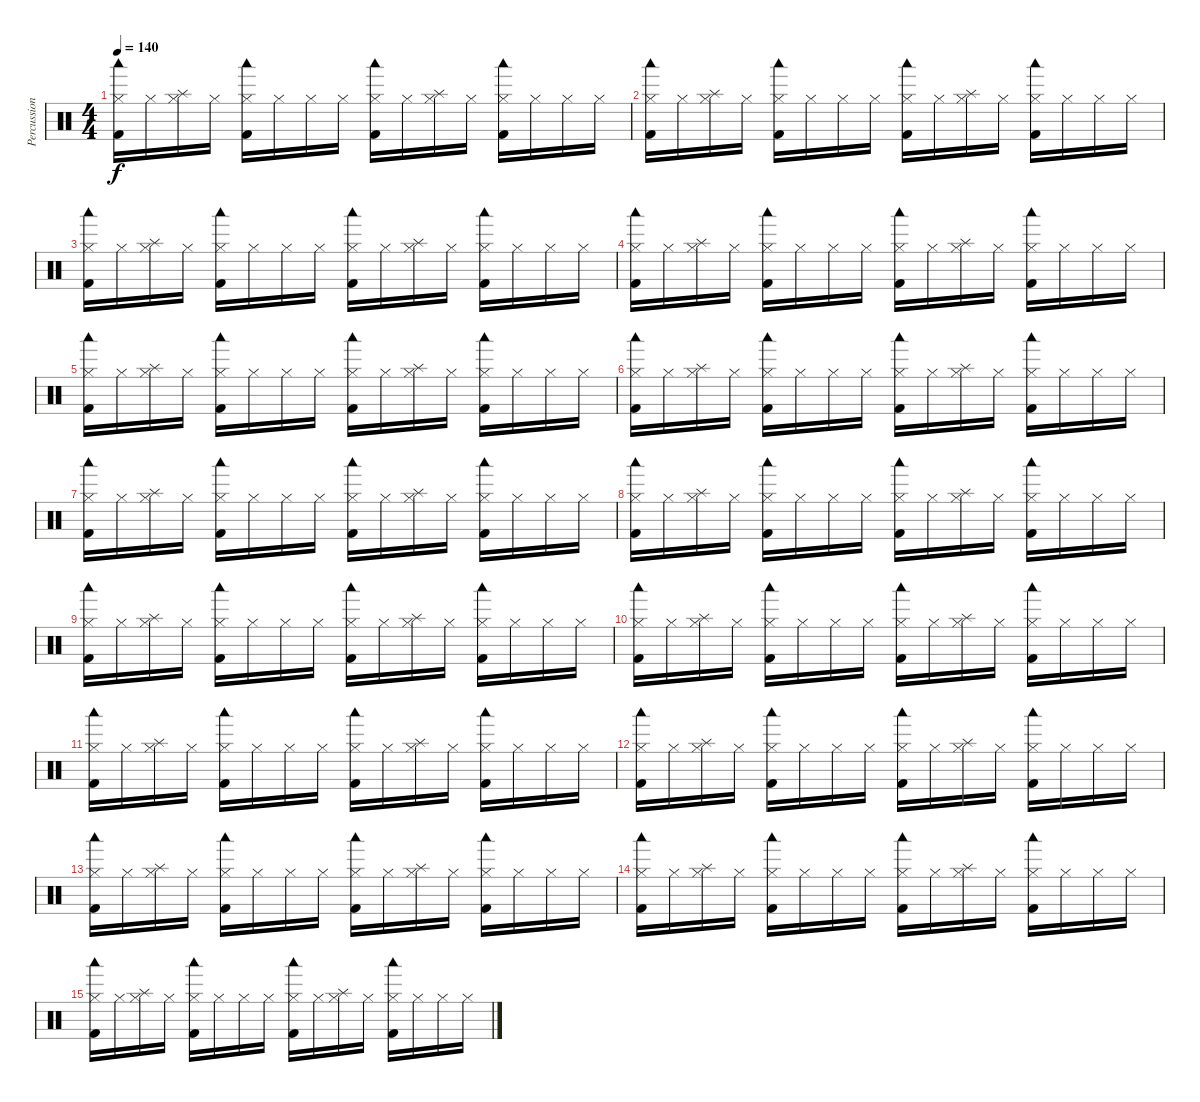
\track ("Percussion" "Percussion") {instrument percussion}
\staff {score}
\articulation defaults
\ts (4 4)
\tempo 140
\clef neutral
\ks c
("Woodblock low (hit)" "Hi-Hat (closed)" "Kick (hit) 2").16{dy f} "Hi-Hat (closed)".16 ("Splash (hit)" "Hi-Hat (closed)").16 "Hi-Hat (closed)".16 ("Woodblock low (hit)" "Hi-Hat (closed)" "Kick (hit) 2").16 "Hi-Hat (closed)".16 "Hi-Hat (closed)".16 "Hi-Hat (closed)".16 ("Woodblock low (hit)" "Hi-Hat (closed)" "Kick (hit) 2").16 "Hi-Hat (closed)".16 ("Splash (hit)" "Hi-Hat (closed)").16 "Hi-Hat (closed)".16 ("Woodblock low (hit)" "Hi-Hat (closed)" "Kick (hit) 2").16 "Hi-Hat (closed)".16 "Hi-Hat (closed)".16 "Hi-Hat (closed)".16 |
("Woodblock low (hit)" "Hi-Hat (closed)" "Kick (hit) 2").16 "Hi-Hat (closed)".16 ("Splash (hit)" "Hi-Hat (closed)").16 "Hi-Hat (closed)".16 ("Woodblock low (hit)" "Hi-Hat (closed)" "Kick (hit) 2").16 "Hi-Hat (closed)".16 "Hi-Hat (closed)".16 "Hi-Hat (closed)".16 ("Woodblock low (hit)" "Hi-Hat (closed)" "Kick (hit) 2").16 "Hi-Hat (closed)".16 ("Splash (hit)" "Hi-Hat (closed)").16 "Hi-Hat (closed)".16 ("Woodblock low (hit)" "Hi-Hat (closed)" "Kick (hit) 2").16 "Hi-Hat (closed)".16 "Hi-Hat (closed)".16 "Hi-Hat (closed)".16 |
("Woodblock low (hit)" "Hi-Hat (closed)" "Kick (hit) 2").16 "Hi-Hat (closed)".16 ("Splash (hit)" "Hi-Hat (closed)").16 "Hi-Hat (closed)".16 ("Woodblock low (hit)" "Hi-Hat (closed)" "Kick (hit) 2").16 "Hi-Hat (closed)".16 "Hi-Hat (closed)".16 "Hi-Hat (closed)".16 ("Woodblock low (hit)" "Hi-Hat (closed)" "Kick (hit) 2").16 "Hi-Hat (closed)".16 ("Splash (hit)" "Hi-Hat (closed)").16 "Hi-Hat (closed)".16 ("Woodblock low (hit)" "Hi-Hat (closed)" "Kick (hit) 2").16 "Hi-Hat (closed)".16 "Hi-Hat (closed)".16 "Hi-Hat (closed)".16 |
("Woodblock low (hit)" "Hi-Hat (closed)" "Kick (hit) 2").16 "Hi-Hat (closed)".16 ("Splash (hit)" "Hi-Hat (closed)").16 "Hi-Hat (closed)".16 ("Woodblock low (hit)" "Hi-Hat (closed)" "Kick (hit) 2").16 "Hi-Hat (closed)".16 "Hi-Hat (closed)".16 "Hi-Hat (closed)".16 ("Woodblock low (hit)" "Hi-Hat (closed)" "Kick (hit) 2").16 "Hi-Hat (closed)".16 ("Splash (hit)" "Hi-Hat (closed)").16 "Hi-Hat (closed)".16 ("Woodblock low (hit)" "Hi-Hat (closed)" "Kick (hit) 2").16 "Hi-Hat (closed)".16 "Hi-Hat (closed)".16 "Hi-Hat (closed)".16 |
("Woodblock low (hit)" "Hi-Hat (closed)" "Kick (hit) 2").16 "Hi-Hat (closed)".16 ("Splash (hit)" "Hi-Hat (closed)").16 "Hi-Hat (closed)".16 ("Woodblock low (hit)" "Hi-Hat (closed)" "Kick (hit) 2").16 "Hi-Hat (closed)".16 "Hi-Hat (closed)".16 "Hi-Hat (closed)".16 ("Woodblock low (hit)" "Hi-Hat (closed)" "Kick (hit) 2").16 "Hi-Hat (closed)".16 ("Splash (hit)" "Hi-Hat (closed)").16 "Hi-Hat (closed)".16 ("Woodblock low (hit)" "Hi-Hat (closed)" "Kick (hit) 2").16 "Hi-Hat (closed)".16 "Hi-Hat (closed)".16 "Hi-Hat (closed)".16 |
("Woodblock low (hit)" "Hi-Hat (closed)" "Kick (hit) 2").16 "Hi-Hat (closed)".16 ("Splash (hit)" "Hi-Hat (closed)").16 "Hi-Hat (closed)".16 ("Woodblock low (hit)" "Hi-Hat (closed)" "Kick (hit) 2").16 "Hi-Hat (closed)".16 "Hi-Hat (closed)".16 "Hi-Hat (closed)".16 ("Woodblock low (hit)" "Hi-Hat (closed)" "Kick (hit) 2").16 "Hi-Hat (closed)".16 ("Splash (hit)" "Hi-Hat (closed)").16 "Hi-Hat (closed)".16 ("Woodblock low (hit)" "Hi-Hat (closed)" "Kick (hit) 2").16 "Hi-Hat (closed)".16 "Hi-Hat (closed)".16 "Hi-Hat (closed)".16 |
("Woodblock low (hit)" "Hi-Hat (closed)" "Kick (hit) 2").16 "Hi-Hat (closed)".16 ("Splash (hit)" "Hi-Hat (closed)").16 "Hi-Hat (closed)".16 ("Woodblock low (hit)" "Hi-Hat (closed)" "Kick (hit) 2").16 "Hi-Hat (closed)".16 "Hi-Hat (closed)".16 "Hi-Hat (closed)".16 ("Woodblock low (hit)" "Hi-Hat (closed)" "Kick (hit) 2").16 "Hi-Hat (closed)".16 ("Splash (hit)" "Hi-Hat (closed)").16 "Hi-Hat (closed)".16 ("Woodblock low (hit)" "Hi-Hat (closed)" "Kick (hit) 2").16 "Hi-Hat (closed)".16 "Hi-Hat (closed)".16 "Hi-Hat (closed)".16 |
("Woodblock low (hit)" "Hi-Hat (closed)" "Kick (hit) 2").16 "Hi-Hat (closed)".16 ("Splash (hit)" "Hi-Hat (closed)").16 "Hi-Hat (closed)".16 ("Woodblock low (hit)" "Hi-Hat (closed)" "Kick (hit) 2").16 "Hi-Hat (closed)".16 "Hi-Hat (closed)".16 "Hi-Hat (closed)".16 ("Woodblock low (hit)" "Hi-Hat (closed)" "Kick (hit) 2").16 "Hi-Hat (closed)".16 ("Splash (hit)" "Hi-Hat (closed)").16 "Hi-Hat (closed)".16 ("Woodblock low (hit)" "Hi-Hat (closed)" "Kick (hit) 2").16 "Hi-Hat (closed)".16 "Hi-Hat (closed)".16 "Hi-Hat (closed)".16 |
("Woodblock low (hit)" "Hi-Hat (closed)" "Kick (hit) 2").16 "Hi-Hat (closed)".16 ("Splash (hit)" "Hi-Hat (closed)").16 "Hi-Hat (closed)".16 ("Woodblock low (hit)" "Hi-Hat (closed)" "Kick (hit) 2").16 "Hi-Hat (closed)".16 "Hi-Hat (closed)".16 "Hi-Hat (closed)".16 ("Woodblock low (hit)" "Hi-Hat (closed)" "Kick (hit) 2").16 "Hi-Hat (closed)".16 ("Splash (hit)" "Hi-Hat (closed)").16 "Hi-Hat (closed)".16 ("Woodblock low (hit)" "Hi-Hat (closed)" "Kick (hit) 2").16 "Hi-Hat (closed)".16 "Hi-Hat (closed)".16 "Hi-Hat (closed)".16 |
("Woodblock low (hit)" "Hi-Hat (closed)" "Kick (hit) 2").16 "Hi-Hat (closed)".16 ("Splash (hit)" "Hi-Hat (closed)").16 "Hi-Hat (closed)".16 ("Woodblock low (hit)" "Hi-Hat (closed)" "Kick (hit) 2").16 "Hi-Hat (closed)".16 "Hi-Hat (closed)".16 "Hi-Hat (closed)".16 ("Woodblock low (hit)" "Hi-Hat (closed)" "Kick (hit) 2").16 "Hi-Hat (closed)".16 ("Splash (hit)" "Hi-Hat (closed)").16 "Hi-Hat (closed)".16 ("Woodblock low (hit)" "Hi-Hat (closed)" "Kick (hit) 2").16 "Hi-Hat (closed)".16 "Hi-Hat (closed)".16 "Hi-Hat (closed)".16 |
("Woodblock low (hit)" "Hi-Hat (closed)" "Kick (hit) 2").16 "Hi-Hat (closed)".16 ("Splash (hit)" "Hi-Hat (closed)").16 "Hi-Hat (closed)".16 ("Woodblock low (hit)" "Hi-Hat (closed)" "Kick (hit) 2").16 "Hi-Hat (closed)".16 "Hi-Hat (closed)".16 "Hi-Hat (closed)".16 ("Woodblock low (hit)" "Hi-Hat (closed)" "Kick (hit) 2").16 "Hi-Hat (closed)".16 ("Splash (hit)" "Hi-Hat (closed)").16 "Hi-Hat (closed)".16 ("Woodblock low (hit)" "Hi-Hat (closed)" "Kick (hit) 2").16 "Hi-Hat (closed)".16 "Hi-Hat (closed)".16 "Hi-Hat (closed)".16 |
("Woodblock low (hit)" "Hi-Hat (closed)" "Kick (hit) 2").16{volume 6} "Hi-Hat (closed)".16 ("Splash (hit)" "Hi-Hat (closed)").16 "Hi-Hat (closed)".16 ("Woodblock low (hit)" "Hi-Hat (closed)" "Kick (hit) 2").16 "Hi-Hat (closed)".16 "Hi-Hat (closed)".16 "Hi-Hat (closed)".16 ("Woodblock low (hit)" "Hi-Hat (closed)" "Kick (hit) 2").16 "Hi-Hat (closed)".16 ("Splash (hit)" "Hi-Hat (closed)").16 "Hi-Hat (closed)".16 ("Woodblock low (hit)" "Hi-Hat (closed)" "Kick (hit) 2").16 "Hi-Hat (closed)".16 "Hi-Hat (closed)".16 "Hi-Hat (closed)".16 |
("Woodblock low (hit)" "Hi-Hat (closed)" "Kick (hit) 2").16 "Hi-Hat (closed)".16 ("Splash (hit)" "Hi-Hat (closed)").16 "Hi-Hat (closed)".16 ("Woodblock low (hit)" "Hi-Hat (closed)" "Kick (hit) 2").16 "Hi-Hat (closed)".16 "Hi-Hat (closed)".16 "Hi-Hat (closed)".16 ("Woodblock low (hit)" "Hi-Hat (closed)" "Kick (hit) 2").16 "Hi-Hat (closed)".16 ("Splash (hit)" "Hi-Hat (closed)").16 "Hi-Hat (closed)".16 ("Woodblock low (hit)" "Hi-Hat (closed)" "Kick (hit) 2").16 "Hi-Hat (closed)".16 "Hi-Hat (closed)".16 "Hi-Hat (closed)".16 |
("Woodblock low (hit)" "Hi-Hat (closed)" "Kick (hit) 2").16 "Hi-Hat (closed)".16 ("Splash (hit)" "Hi-Hat (closed)").16 "Hi-Hat (closed)".16 ("Woodblock low (hit)" "Hi-Hat (closed)" "Kick (hit) 2").16 "Hi-Hat (closed)".16 "Hi-Hat (closed)".16 "Hi-Hat (closed)".16 ("Woodblock low (hit)" "Hi-Hat (closed)" "Kick (hit) 2").16 "Hi-Hat (closed)".16 ("Splash (hit)" "Hi-Hat (closed)").16 "Hi-Hat (closed)".16 ("Woodblock low (hit)" "Hi-Hat (closed)" "Kick (hit) 2").16 "Hi-Hat (closed)".16 "Hi-Hat (closed)".16 "Hi-Hat (closed)".16 |
("Woodblock low (hit)" "Hi-Hat (closed)" "Kick (hit) 2").16 "Hi-Hat (closed)".16 ("Splash (hit)" "Hi-Hat (closed)").16 "Hi-Hat (closed)".16 ("Woodblock low (hit)" "Hi-Hat (closed)" "Kick (hit) 2").16 "Hi-Hat (closed)".16 "Hi-Hat (closed)".16 "Hi-Hat (closed)".16 ("Woodblock low (hit)" "Hi-Hat (closed)" "Kick (hit) 2").16 "Hi-Hat (closed)".16 ("Splash (hit)" "Hi-Hat (closed)").16 "Hi-Hat (closed)".16 ("Woodblock low (hit)" "Hi-Hat (closed)" "Kick (hit) 2").16 "Hi-Hat (closed)".16 "Hi-Hat (closed)".16 "Hi-Hat (closed)".16
